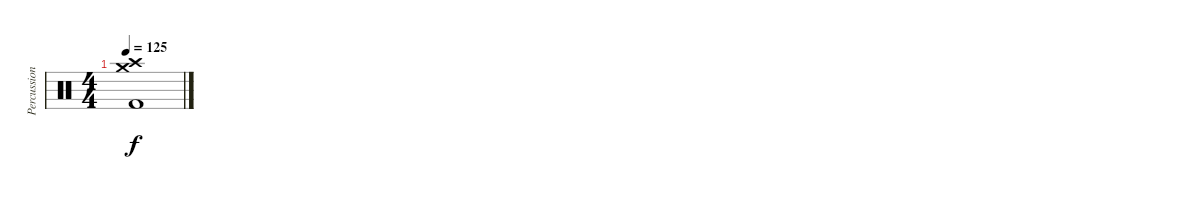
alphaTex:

\track ("Percussion" "Percussion") {instrument percussion}
\staff {score}
\articulation defaults
\ts (4 4)
\tempo 125
\clef neutral
\ks c
("Crash high (hit)" "Crash medium (hit)" "Kick (hit) 2").1{dy f}
